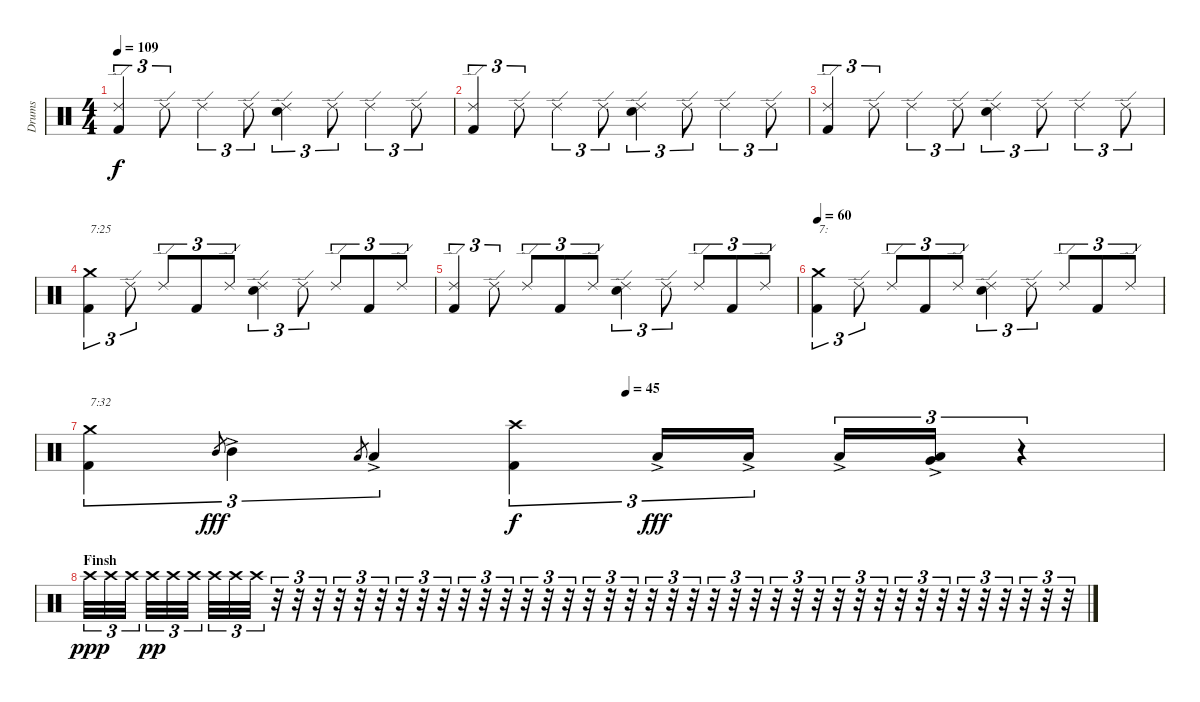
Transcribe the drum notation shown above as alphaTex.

\track ("Drums" "Drums") {instrument percussion}
\staff {score}
\articulation defaults
\ts (4 4)
\tempo 109
\clef neutral
\ks c
("Kick (hit) 2" "Ride (edge) 2").4{tu (3 2) dy f} "Ride (edge) 2".8{tu (3 2)} "Ride (edge) 2".4{tu (3 2)} "Ride (edge) 2".8{tu (3 2)} ("Electric Snare (hit)" "Ride (edge) 2").4{tu (3 2)} "Ride (edge) 2".8{tu (3 2)} "Ride (edge) 2".4{tu (3 2)} "Ride (edge) 2".8{tu (3 2)} |
("Kick (hit) 2" "Ride (edge) 2").4{tu (3 2)} "Ride (edge) 2".8{tu (3 2)} "Ride (edge) 2".4{tu (3 2)} "Ride (edge) 2".8{tu (3 2)} ("Electric Snare (hit)" "Ride (edge) 2").4{tu (3 2)} "Ride (edge) 2".8{tu (3 2)} "Ride (edge) 2".4{tu (3 2)} "Ride (edge) 2".8{tu (3 2)} |
("Kick (hit) 2" "Ride (edge) 2").4{tu (3 2)} "Ride (edge) 2".8{tu (3 2)} "Ride (edge) 2".4{tu (3 2)} "Ride (edge) 2".8{tu (3 2)} ("Electric Snare (hit)" "Ride (edge) 2").4{tu (3 2)} "Ride (edge) 2".8{tu (3 2)} "Ride (edge) 2".4{tu (3 2)} "Ride (edge) 2".8{tu (3 2)} |
("Kick (hit) 2" "Crash medium (hit)").4{tu (3 2) txt "7:25"} "Ride (edge) 2".8{tu (3 2)} "Ride (edge) 2".8{tu (3 2)} "Kick (hit) 2".8{tu (3 2)} "Ride (edge) 2".8{tu (3 2)} ("Electric Snare (hit)" "Ride (edge) 2").4{tu (3 2)} "Ride (edge) 2".8{tu (3 2)} "Ride (edge) 2".8{tu (3 2)} "Kick (hit) 2".8{tu (3 2)} "Ride (edge) 2".8{tu (3 2)} |
("Kick (hit) 2" "Ride (edge) 2").4{tu (3 2)} "Ride (edge) 2".8{tu (3 2)} "Ride (edge) 2".8{tu (3 2)} "Kick (hit) 2".8{tu (3 2)} "Ride (edge) 2".8{tu (3 2)} ("Electric Snare (hit)" "Ride (edge) 2").4{tu (3 2)} "Ride (edge) 2".8{tu (3 2)} "Ride (edge) 2".8{tu (3 2)} "Kick (hit) 2".8{tu (3 2)} "Ride (edge) 2".8{tu (3 2)} |
\tempo 60
("Kick (hit) 2" "Crash medium (hit)").4{tu (3 2) txt "7:"} "Ride (edge) 2".8{tu (3 2)} "Ride (edge) 2".8{tu (3 2)} "Kick (hit) 2".8{tu (3 2)} "Ride (edge) 2".8{tu (3 2)} ("Electric Snare (hit)" "Ride (edge) 2").4{tu (3 2)} "Ride (edge) 2".8{tu (3 2)} "Ride (edge) 2".8{tu (3 2)} "Kick (hit) 2".8{tu (3 2)} "Ride (edge) 2".8{tu (3 2)} |
\tempo (45 0.5)
("Kick (hit) 2" "Crash medium (hit)").4{tu (3 2) txt "7:32"} "Mid Tom (hit)".8{gr dy fff} "Mid Tom (hit)"{ac}.4{tu (3 2)} "Low Tom (hit)".8{gr} "Low Tom (hit)"{ac}.4{tu (3 2)} ("Kick (hit) 2" "Crash high (hit)").4{tu (3 2) dy f} "Low Tom (hit)"{ac}.16{tu (3 2) dy fff} "Low Tom (hit)"{ac}.16{tu (3 2)} "Low Tom (hit)"{ac}.16{tu (3 2)} ("Very Low Tom (hit)"{ac} "Low Tom (hit)"{ac}).16{tu (3 2)} r.4{tu (3 2)} |
\section ("" "Finsh")
"Crash high (hit)".32{tu (3 2) dy ppp} "Crash high (hit)".32{tu (3 2)} "Crash high (hit)".32{tu (3 2)} "Crash high (hit)".32{tu (3 2) dy pp} "Crash high (hit)".32{tu (3 2)} "Crash high (hit)".32{tu (3 2)} "Crash high (hit)".32{tu (3 2)} "Crash high (hit)".32{tu (3 2)} "Crash high (hit)".32{tu (3 2)} r.32{tu (3 2)} r.32{tu (3 2)} r.32{tu (3 2)} r.32{tu (3 2)} r.32{tu (3 2)} r.32{tu (3 2)} r.32{tu (3 2)} r.32{tu (3 2)} r.32{tu (3 2)} r.32{tu (3 2)} r.32{tu (3 2)} r.32{tu (3 2)} r.32{tu (3 2)} r.32{tu (3 2)} r.32{tu (3 2)} r.32{tu (3 2)} r.32{tu (3 2)} r.32{tu (3 2)} r.32{tu (3 2)} r.32{tu (3 2)} r.32{tu (3 2)} r.32{tu (3 2)} r.32{tu (3 2)} r.32{tu (3 2)} r.32{tu (3 2)} r.32{tu (3 2)} r.32{tu (3 2)} r.32{tu (3 2)} r.32{tu (3 2)} r.32{tu (3 2)} r.32{tu (3 2)} r.32{tu (3 2)} r.32{tu (3 2)} r.32{tu (3 2)} r.32{tu (3 2)} r.32{tu (3 2)} r.32{tu (3 2)} r.32{tu (3 2)} r.32{tu (3 2)}
